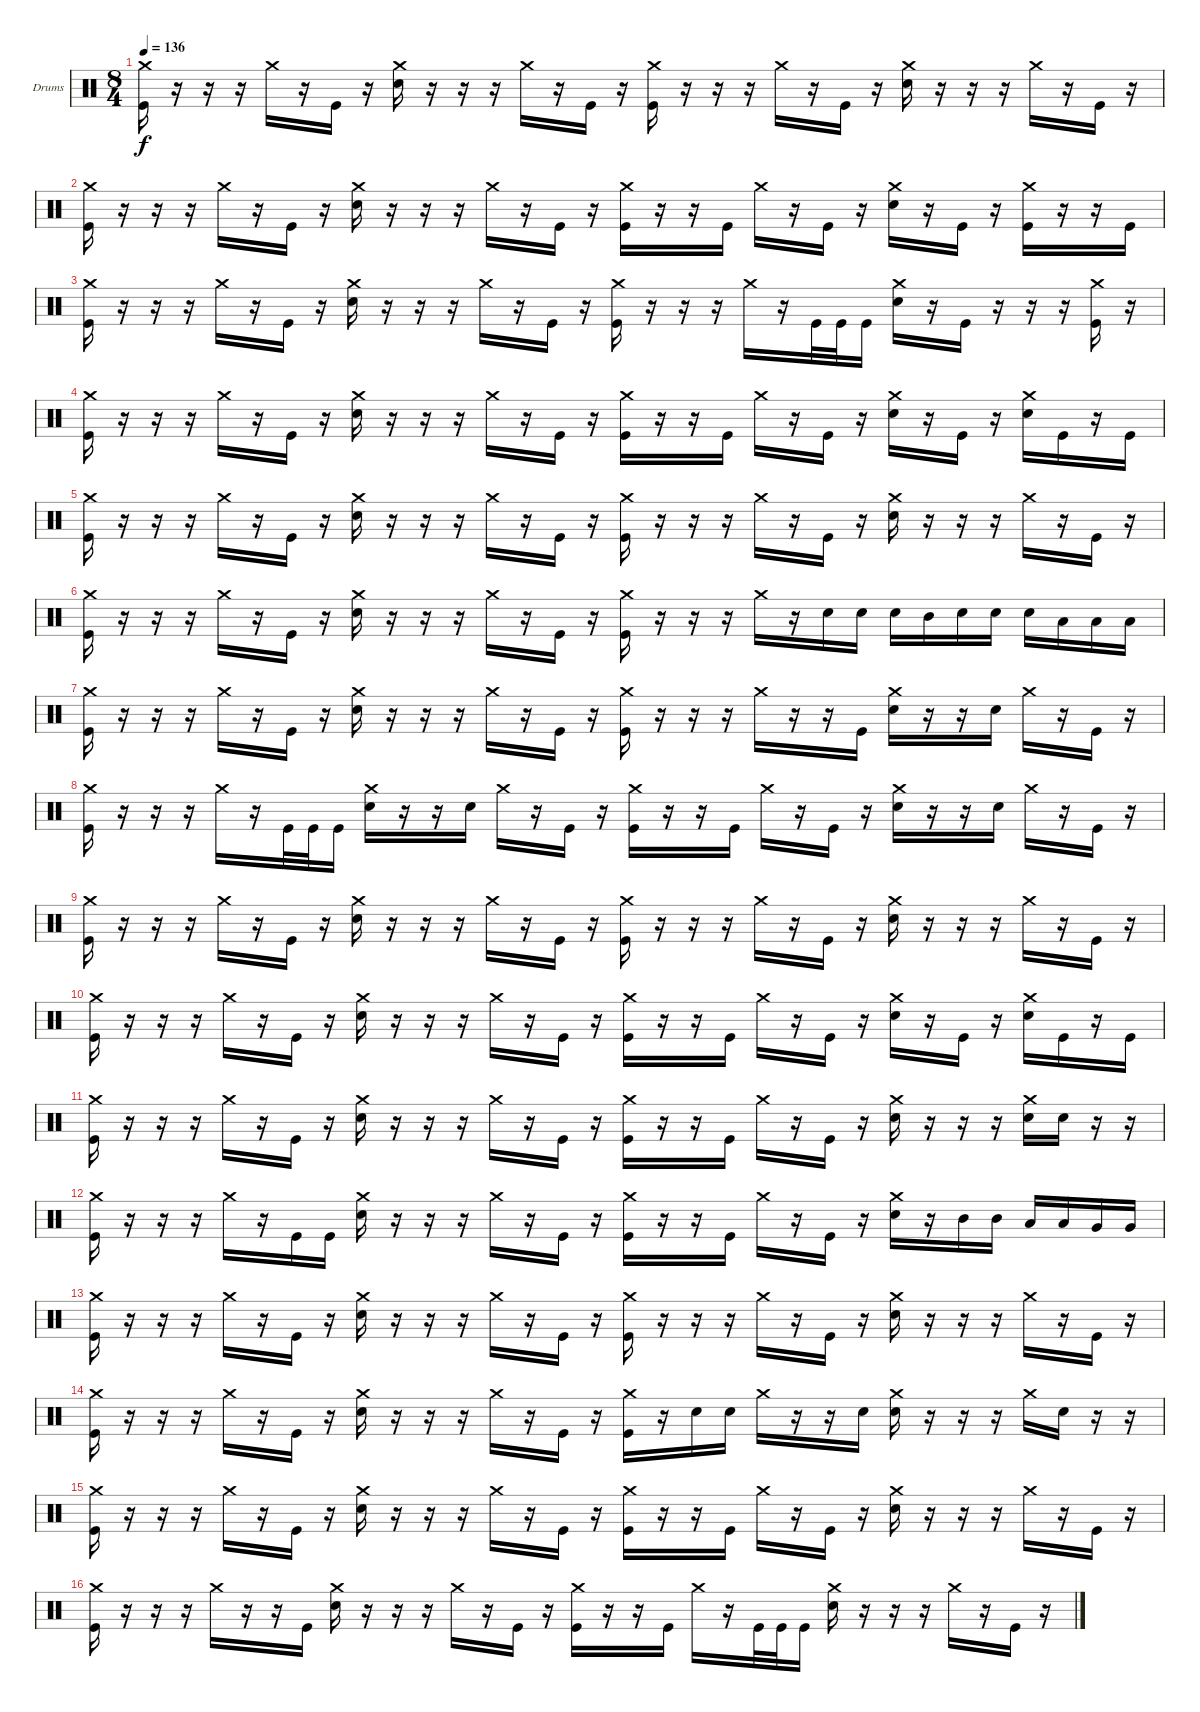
\defaultSystemsLayout 4
\bracketExtendMode groupsimilarinstruments
\firstSystemTrackNameOrientation horizontal
\otherSystemsTrackNameOrientation horizontal
\track ("Drumkit" "Drums") {instrument percussion}
\staff {score}
\articulation defaults
\ts (8 4)
\tempo 136
\clef neutral
\scale
0.47685
\ks c
("Kick (hit)" "Crash medium (hit)").16{dy f} r.16 r.16 r.16 "Crash medium (hit)".16 r.16 "Kick (hit)".16 r.16 ("Snare (hit) 2" "Crash medium (hit)").16 r.16 r.16 r.16 "Crash medium (hit)".16 r.16 "Kick (hit)".16 r.16 ("Kick (hit)" "Crash medium (hit)").16 r.16 r.16 r.16 "Crash medium (hit)".16 r.16 "Kick (hit)".16 r.16 ("Snare (hit) 2" "Crash medium (hit)").16 r.16 r.16 r.16 "Crash medium (hit)".16 r.16 "Kick (hit)".16 r.16 |
("Kick (hit)" "Crash medium (hit)").16 r.16 r.16 r.16 "Crash medium (hit)".16 r.16 "Kick (hit)".16 r.16 ("Snare (hit) 2" "Crash medium (hit)").16 r.16 r.16 r.16 "Crash medium (hit)".16 r.16 "Kick (hit)".16 r.16 ("Kick (hit)" "Crash medium (hit)").16 r.16 r.16 "Kick (hit)".16 "Crash medium (hit)".16 r.16 "Kick (hit)".16 r.16 ("Snare (hit) 2" "Crash medium (hit)").16 r.16 "Kick (hit)".16 r.16 ("Crash medium (hit)" "Kick (hit)").16 r.16 r.16 "Kick (hit)".16 |
("Kick (hit)" "Crash medium (hit)").16 r.16 r.16 r.16 "Crash medium (hit)".16 r.16 "Kick (hit)".16 r.16 ("Snare (hit) 2" "Crash medium (hit)").16 r.16 r.16 r.16 "Crash medium (hit)".16 r.16 "Kick (hit)".16 r.16 ("Kick (hit)" "Crash medium (hit)").16 r.16 r.16 r.16 "Crash medium (hit)".16 r.16 "Kick (hit)".32 "Kick (hit)".32 "Kick (hit)".16 ("Snare (hit) 2" "Crash medium (hit)").16 r.16 "Kick (hit)".16 r.16 r.16 r.16 ("Kick (hit)" "Crash medium (hit)").16 r.16 |
("Kick (hit)" "Crash medium (hit)").16 r.16 r.16 r.16 "Crash medium (hit)".16 r.16 "Kick (hit)".16 r.16 ("Snare (hit) 2" "Crash medium (hit)").16 r.16 r.16 r.16 "Crash medium (hit)".16 r.16 "Kick (hit)".16 r.16 ("Kick (hit)" "Crash medium (hit)").16 r.16 r.16 "Kick (hit)".16 "Crash medium (hit)".16 r.16 "Kick (hit)".16 r.16 ("Snare (hit) 2" "Crash medium (hit)").16 r.16 "Kick (hit)".16 r.16 ("Crash medium (hit)" "Snare (hit) 2").16 "Kick (hit)".16 r.16 "Kick (hit)".16 |
("Kick (hit)" "Crash medium (hit)").16 r.16 r.16 r.16 "Crash medium (hit)".16 r.16 "Kick (hit)".16 r.16 ("Snare (hit) 2" "Crash medium (hit)").16 r.16 r.16 r.16 "Crash medium (hit)".16 r.16 "Kick (hit)".16 r.16 ("Kick (hit)" "Crash medium (hit)").16 r.16 r.16 r.16 "Crash medium (hit)".16 r.16 "Kick (hit)".16 r.16 ("Snare (hit) 2" "Crash medium (hit)").16 r.16 r.16 r.16 "Crash medium (hit)".16 r.16 "Kick (hit)".16 r.16 |
("Kick (hit)" "Crash medium (hit)").16 r.16 r.16 r.16 "Crash medium (hit)".16 r.16 "Kick (hit)".16 r.16 ("Snare (hit) 2" "Crash medium (hit)").16 r.16 r.16 r.16 "Crash medium (hit)".16 r.16 "Kick (hit)".16 r.16 ("Kick (hit)" "Crash medium (hit)").16 r.16 r.16 r.16 "Crash medium (hit)".16 r.16 "Snare (hit) 2".16 "Snare (hit) 2".16 "Snare (hit) 2".16 "Mid Tom (hit)".16 "Snare (hit) 2".16 "Snare (hit) 2".16 "Snare (hit) 2".16 "Low Tom (hit)".16 "Low Tom (hit)".16 "Low Tom (hit)".16 |
("Kick (hit)" "Crash medium (hit)").16 r.16 r.16 r.16 "Crash medium (hit)".16 r.16 "Kick (hit)".16 r.16 ("Snare (hit) 2" "Crash medium (hit)").16 r.16 r.16 r.16 "Crash medium (hit)".16 r.16 "Kick (hit)".16 r.16 ("Kick (hit)" "Crash medium (hit)").16 r.16 r.16 r.16 "Crash medium (hit)".16 r.16 r.16 "Kick (hit)".16 ("Snare (hit) 2" "Crash medium (hit)").16 r.16 r.16 "Snare (hit) 2".16 "Crash medium (hit)".16 r.16 "Kick (hit)".16 r.16 |
("Kick (hit)" "Crash medium (hit)").16 r.16 r.16 r.16 "Crash medium (hit)".16 r.16 "Kick (hit)".32 "Kick (hit)".32 "Kick (hit)".16 ("Snare (hit) 2" "Crash medium (hit)").16 r.16 r.16 "Snare (hit) 2".16 "Crash medium (hit)".16 r.16 "Kick (hit)".16 r.16 ("Kick (hit)" "Crash medium (hit)").16 r.16 r.16 "Kick (hit)".16 "Crash medium (hit)".16 r.16 "Kick (hit)".16 r.16 ("Snare (hit) 2" "Crash medium (hit)").16 r.16 r.16 "Snare (hit) 2".16 "Crash medium (hit)".16 r.16 "Kick (hit)".16 r.16 |
("Kick (hit)" "Crash medium (hit)").16 r.16 r.16 r.16 "Crash medium (hit)".16 r.16 "Kick (hit)".16 r.16 ("Snare (hit) 2" "Crash medium (hit)").16 r.16 r.16 r.16 "Crash medium (hit)".16 r.16 "Kick (hit)".16 r.16 ("Kick (hit)" "Crash medium (hit)").16 r.16 r.16 r.16 "Crash medium (hit)".16 r.16 "Kick (hit)".16 r.16 ("Snare (hit) 2" "Crash medium (hit)").16 r.16 r.16 r.16 "Crash medium (hit)".16 r.16 "Kick (hit)".16 r.16 |
("Kick (hit)" "Crash medium (hit)").16 r.16 r.16 r.16 "Crash medium (hit)".16 r.16 "Kick (hit)".16 r.16 ("Snare (hit) 2" "Crash medium (hit)").16 r.16 r.16 r.16 "Crash medium (hit)".16 r.16 "Kick (hit)".16 r.16 ("Kick (hit)" "Crash medium (hit)").16 r.16 r.16 "Kick (hit)".16 "Crash medium (hit)".16 r.16 "Kick (hit)".16 r.16 ("Snare (hit) 2" "Crash medium (hit)").16 r.16 "Kick (hit)".16 r.16 ("Crash medium (hit)" "Snare (hit) 2").16 "Kick (hit)".16 r.16 "Kick (hit)".16 |
("Kick (hit)" "Crash medium (hit)").16 r.16 r.16 r.16 "Crash medium (hit)".16 r.16 "Kick (hit)".16 r.16 ("Snare (hit) 2" "Crash medium (hit)").16 r.16 r.16 r.16 "Crash medium (hit)".16 r.16 "Kick (hit)".16 r.16 ("Kick (hit)" "Crash medium (hit)").16 r.16 r.16 "Kick (hit)".16 "Crash medium (hit)".16 r.16 "Kick (hit)".16 r.16 ("Snare (hit) 2" "Crash medium (hit)").16 r.16 r.16 r.16 ("Crash medium (hit)" "Snare (hit) 2").16 "Snare (hit) 2".16 r.16 r.16 |
\scale
0.519548 ("Kick (hit)" "Crash medium (hit)").16 r.16 r.16 r.16 "Crash medium (hit)".16 r.16 "Kick (hit)".16 "Kick (hit)".16 ("Snare (hit) 2" "Crash medium (hit)").16 r.16 r.16 r.16 "Crash medium (hit)".16 r.16 "Kick (hit)".16 r.16 ("Kick (hit)" "Crash medium (hit)").16 r.16 r.16 "Kick (hit)".16 "Crash medium (hit)".16 r.16 "Kick (hit)".16 r.16 ("Snare (hit) 2" "Crash medium (hit)").16 r.16 "Mid Tom (hit)".16 "Mid Tom (hit)".16 "Low Tom (hit)".16 "Low Tom (hit)".16 "Very Low Tom (hit)".16 "Very Low Tom (hit)".16 |
\scale
0.478431 ("Kick (hit)" "Crash medium (hit)").16 r.16 r.16 r.16 "Crash medium (hit)".16 r.16 "Kick (hit)".16 r.16 ("Snare (hit) 2" "Crash medium (hit)").16 r.16 r.16 r.16 "Crash medium (hit)".16 r.16 "Kick (hit)".16 r.16 ("Kick (hit)" "Crash medium (hit)").16 r.16 r.16 r.16 "Crash medium (hit)".16 r.16 "Kick (hit)".16 r.16 ("Snare (hit) 2" "Crash medium (hit)").16 r.16 r.16 r.16 "Crash medium (hit)".16 r.16 "Kick (hit)".16 r.16 |
("Kick (hit)" "Crash medium (hit)").16 r.16 r.16 r.16 "Crash medium (hit)".16 r.16 "Kick (hit)".16 r.16 ("Snare (hit) 2" "Crash medium (hit)").16 r.16 r.16 r.16 "Crash medium (hit)".16 r.16 "Kick (hit)".16 r.16 ("Kick (hit)" "Crash medium (hit)").16 r.16 "Snare (hit) 2".16 "Snare (hit) 2".16 "Crash medium (hit)".16 r.16 r.16 "Snare (hit) 2".16 ("Crash medium (hit)" "Snare (hit) 2").16 r.16 r.16 r.16 "Crash medium (hit)".16 "Snare (hit) 2".16 r.16 r.16 |
("Kick (hit)" "Crash medium (hit)").16 r.16 r.16 r.16 "Crash medium (hit)".16 r.16 "Kick (hit)".16 r.16 ("Snare (hit) 2" "Crash medium (hit)").16 r.16 r.16 r.16 "Crash medium (hit)".16 r.16 "Kick (hit)".16 r.16 ("Kick (hit)" "Crash medium (hit)").16 r.16 r.16 "Kick (hit)".16 "Crash medium (hit)".16 r.16 "Kick (hit)".16 r.16 ("Snare (hit) 2" "Crash medium (hit)").16 r.16 r.16 r.16 "Crash medium (hit)".16 r.16 "Kick (hit)".16 r.16 |
("Kick (hit)" "Crash medium (hit)").16 r.16 r.16 r.16 "Crash medium (hit)".16 r.16 r.16 "Kick (hit)".16 ("Snare (hit) 2" "Crash medium (hit)").16 r.16 r.16 r.16 "Crash medium (hit)".16 r.16 "Kick (hit)".16 r.16 ("Kick (hit)" "Crash medium (hit)").16 r.16 r.16 "Kick (hit)".16 "Crash medium (hit)".16 r.16 "Kick (hit)".32 "Kick (hit)".32 "Kick (hit)".16 ("Snare (hit) 2" "Crash medium (hit)").16 r.16 r.16 r.16 "Crash medium (hit)".16 r.16 "Kick (hit)".16 r.16
